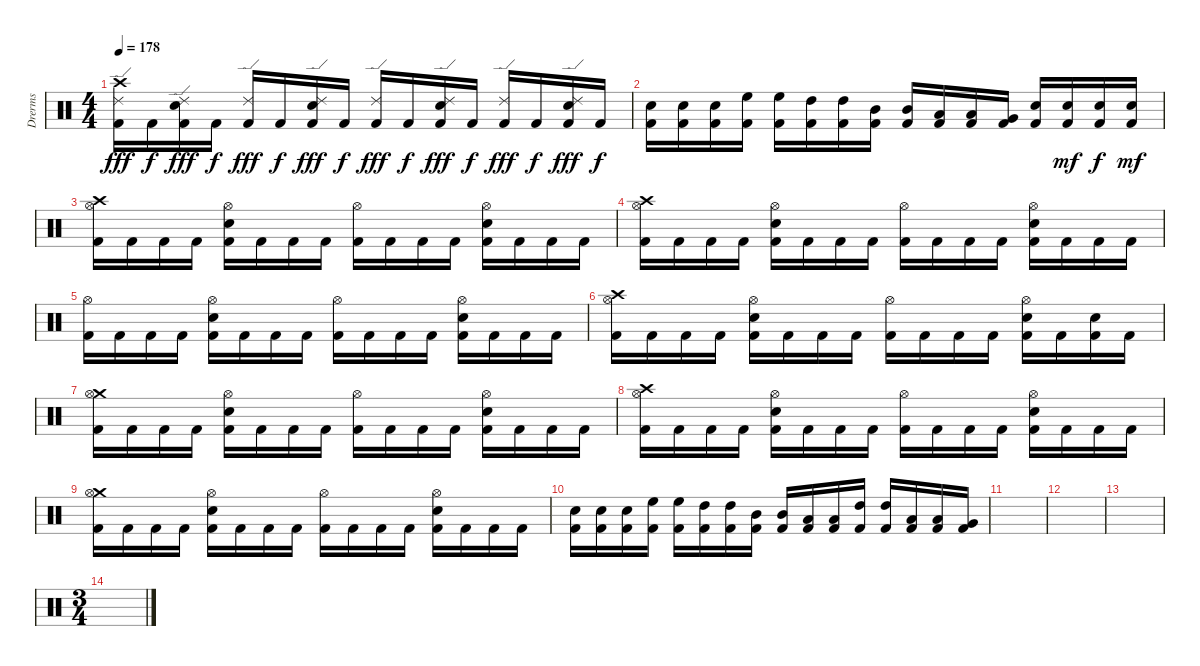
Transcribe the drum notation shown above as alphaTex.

\track ("Drerms" "Drerms") {instrument percussion}
\staff {score}
\articulation defaults
\ts (4 4)
\tempo 178
\clef neutral
\ks c
("Crash high (hit)" "Ride (edge) 2" "Kick (hit) 2").16{dy fff} "Kick (hit) 2".16{dy f} ("Snare (hit) 2" "Ride (edge) 2" "Kick (hit) 2").16{dy fff} "Kick (hit) 2".16{dy f} ("Ride (edge) 2" "Kick (hit) 2").16{dy fff} "Kick (hit) 2".16{dy f} ("Snare (hit) 2" "Ride (edge) 2" "Kick (hit) 2").16{dy fff} "Kick (hit) 2".16{dy f} ("Ride (edge) 2" "Kick (hit) 2").16{dy fff} "Kick (hit) 2".16{dy f} ("Snare (hit) 2" "Ride (edge) 2" "Kick (hit) 2").16{dy fff} "Kick (hit) 2".16{dy f} ("Ride (edge) 2" "Kick (hit) 2").16{dy fff} "Kick (hit) 2".16{dy f} ("Snare (hit) 2" "Ride (edge) 2" "Kick (hit) 2").16{dy fff} "Kick (hit) 2".16{dy f} |
("Snare (hit) 2" "Kick (hit) 2").16 ("Snare (hit) 2" "Kick (hit) 2").16 ("Snare (hit) 2" "Kick (hit) 2").16 ("High Floor Tom (hit)" "Kick (hit) 2").16 ("High Floor Tom (hit)" "Kick (hit) 2").16 ("High Tom (hit)" "Kick (hit) 2").16 ("High Tom (hit)" "Kick (hit) 2").16 ("Mid Tom (hit)" "Kick (hit) 2").16 ("Mid Tom (hit)" "Kick (hit) 2").16 ("Low Tom (hit)" "Kick (hit) 2").16 ("Low Tom (hit)" "Kick (hit) 2").16 ("Very Low Tom (hit)" "Kick (hit) 2").16 ("Snare (hit) 2" "Kick (hit) 2").16 ("Snare (hit) 2" "Kick (hit) 2").16{dy mf} ("Snare (hit) 2" "Kick (hit) 2").16{dy f} ("Snare (hit) 2" "Kick (hit) 2").16{dy mf} |
("Crash high (hit)" "Hi-Hat (open)" "Kick (hit) 2").16 "Kick (hit) 2".16 "Kick (hit) 2".16 "Kick (hit) 2".16 ("Snare (hit) 2" "Hi-Hat (open)" "Kick (hit) 2").16 "Kick (hit) 2".16 "Kick (hit) 2".16 "Kick (hit) 2".16 ("Hi-Hat (open)" "Kick (hit) 2").16 "Kick (hit) 2".16 "Kick (hit) 2".16 "Kick (hit) 2".16 ("Snare (hit) 2" "Hi-Hat (open)" "Kick (hit) 2").16 "Kick (hit) 2".16 "Kick (hit) 2".16 "Kick (hit) 2".16 |
("Crash high (hit)" "Hi-Hat (open)" "Kick (hit) 2").16 "Kick (hit) 2".16 "Kick (hit) 2".16 "Kick (hit) 2".16 ("Snare (hit) 2" "Hi-Hat (open)" "Kick (hit) 2").16 "Kick (hit) 2".16 "Kick (hit) 2".16 "Kick (hit) 2".16 ("Hi-Hat (open)" "Kick (hit) 2").16 "Kick (hit) 2".16 "Kick (hit) 2".16 "Kick (hit) 2".16 ("Snare (hit) 2" "Hi-Hat (open)" "Kick (hit) 2").16 "Kick (hit) 2".16 "Kick (hit) 2".16 "Kick (hit) 2".16 |
("Hi-Hat (open)" "Kick (hit) 2").16 "Kick (hit) 2".16 "Kick (hit) 2".16 "Kick (hit) 2".16 ("Snare (hit) 2" "Hi-Hat (open)" "Kick (hit) 2").16 "Kick (hit) 2".16 "Kick (hit) 2".16 "Kick (hit) 2".16 ("Hi-Hat (open)" "Kick (hit) 2").16 "Kick (hit) 2".16 "Kick (hit) 2".16 "Kick (hit) 2".16 ("Snare (hit) 2" "Hi-Hat (open)" "Kick (hit) 2").16 "Kick (hit) 2".16 "Kick (hit) 2".16 "Kick (hit) 2".16 |
("Crash high (hit)" "Hi-Hat (open)" "Kick (hit) 2").16 "Kick (hit) 2".16 "Kick (hit) 2".16 "Kick (hit) 2".16 ("Snare (hit) 2" "Hi-Hat (open)" "Kick (hit) 2").16 "Kick (hit) 2".16 "Kick (hit) 2".16 "Kick (hit) 2".16 ("Hi-Hat (open)" "Kick (hit) 2").16 "Kick (hit) 2".16 "Kick (hit) 2".16 "Kick (hit) 2".16 ("Snare (hit) 2" "Hi-Hat (open)" "Kick (hit) 2").16 "Kick (hit) 2".16 ("Snare (hit) 2" "Kick (hit) 2").16 "Kick (hit) 2".16 |
("Crash medium (hit)" "Hi-Hat (open)" "Kick (hit) 2").16 "Kick (hit) 2".16 "Kick (hit) 2".16 "Kick (hit) 2".16 ("Snare (hit) 2" "Hi-Hat (open)" "Kick (hit) 2").16 "Kick (hit) 2".16 "Kick (hit) 2".16 "Kick (hit) 2".16 ("Hi-Hat (open)" "Kick (hit) 2").16 "Kick (hit) 2".16 "Kick (hit) 2".16 "Kick (hit) 2".16 ("Snare (hit) 2" "Hi-Hat (open)" "Kick (hit) 2").16 "Kick (hit) 2".16 "Kick (hit) 2".16 "Kick (hit) 2".16 |
("Crash high (hit)" "Hi-Hat (open)" "Kick (hit) 2").16 "Kick (hit) 2".16 "Kick (hit) 2".16 "Kick (hit) 2".16 ("Snare (hit) 2" "Hi-Hat (open)" "Kick (hit) 2").16 "Kick (hit) 2".16 "Kick (hit) 2".16 "Kick (hit) 2".16 ("Hi-Hat (open)" "Kick (hit) 2").16 "Kick (hit) 2".16 "Kick (hit) 2".16 "Kick (hit) 2".16 ("Snare (hit) 2" "Hi-Hat (open)" "Kick (hit) 2").16 "Kick (hit) 2".16 "Kick (hit) 2".16 "Kick (hit) 2".16 |
("Crash medium (hit)" "Hi-Hat (open)" "Kick (hit) 2").16 "Kick (hit) 2".16 "Kick (hit) 2".16 "Kick (hit) 2".16 ("Snare (hit) 2" "Hi-Hat (open)" "Kick (hit) 2").16 "Kick (hit) 2".16 "Kick (hit) 2".16 "Kick (hit) 2".16 ("Hi-Hat (open)" "Kick (hit) 2").16 "Kick (hit) 2".16 "Kick (hit) 2".16 "Kick (hit) 2".16 ("Snare (hit) 2" "Hi-Hat (open)" "Kick (hit) 2").16 "Kick (hit) 2".16 "Kick (hit) 2".16 "Kick (hit) 2".16 |
("Snare (hit) 2" "Kick (hit) 2").16 ("Snare (hit) 2" "Kick (hit) 2").16 ("Snare (hit) 2" "Kick (hit) 2").16 ("High Floor Tom (hit)" "Kick (hit) 2").16 ("High Floor Tom (hit)" "Kick (hit) 2").16 ("High Tom (hit)" "Kick (hit) 2").16 ("High Tom (hit)" "Kick (hit) 2").16 ("Mid Tom (hit)" "Kick (hit) 2").16 ("Mid Tom (hit)" "Kick (hit) 2").16 ("Low Tom (hit)" "Kick (hit) 2").16 ("Low Tom (hit)" "Kick (hit) 2").16 ("High Tom (hit)" "Kick (hit) 2").16 ("High Tom (hit)" "Kick (hit) 2").16 ("Low Tom (hit)" "Kick (hit) 2").16 ("Low Tom (hit)" "Kick (hit) 2").16 ("Very Low Tom (hit)" "Kick (hit) 2").16 |
|
|
|
\ts (3 4)
